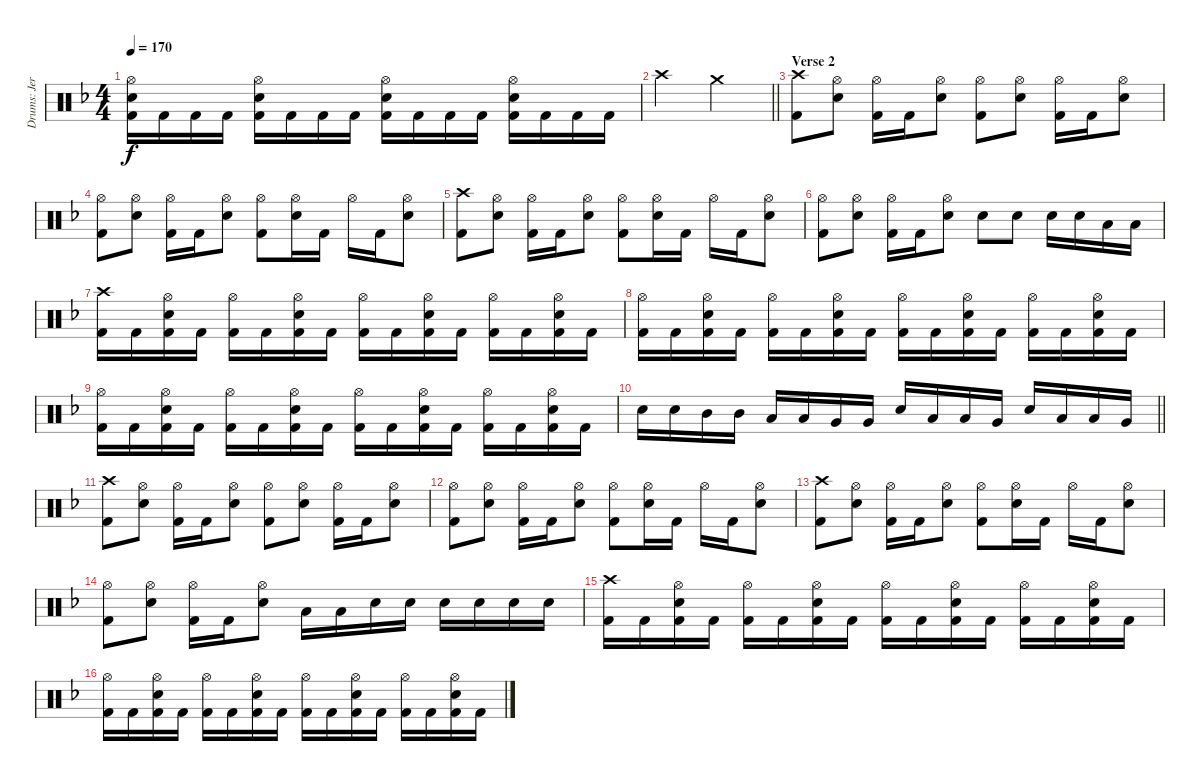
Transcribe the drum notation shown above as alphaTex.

\track ("Drums: Jere Luokkamäki" "Drums: Jer") {instrument percussion}
\staff {score}
\articulation defaults
\ts (4 4)
\tempo 170
\clef neutral
\ks dminor
("Hi-Hat (open)" "Electric Snare (hit)" "Kick (hit) 2").16{dy f} "Kick (hit) 2".16 "Kick (hit) 2".16 "Kick (hit) 2".16 ("Hi-Hat (open)" "Electric Snare (hit)" "Kick (hit) 2").16 "Kick (hit) 2".16 "Kick (hit) 2".16 "Kick (hit) 2".16 ("Hi-Hat (open)" "Electric Snare (hit)" "Kick (hit) 2").16 "Kick (hit) 2".16 "Kick (hit) 2".16 "Kick (hit) 2".16 ("Hi-Hat (open)" "Electric Snare (hit)" "Kick (hit) 2").16 "Kick (hit) 2".16 "Kick (hit) 2".16 "Kick (hit) 2".16 |
\barLineRight lightlight "Crash high (hit)".2 "Crash medium (hit)".2
|
\section ("" "Verse 2")
("Crash high (hit)" "Kick (hit) 2").8 ("Hi-Hat (open)" "Electric Snare (hit)").8 ("Hi-Hat (open)" "Kick (hit) 2").16 "Kick (hit) 2".16 ("Hi-Hat (open)" "Electric Snare (hit)").8 ("Hi-Hat (open)" "Kick (hit) 2").8 ("Hi-Hat (open)" "Electric Snare (hit)").8 ("Hi-Hat (open)" "Kick (hit) 2").16 "Kick (hit) 2".16 ("Hi-Hat (open)" "Electric Snare (hit)").8 |
("Hi-Hat (open)" "Kick (hit) 2").8 ("Hi-Hat (open)" "Electric Snare (hit)").8 ("Hi-Hat (open)" "Kick (hit) 2").16 "Kick (hit) 2".16 ("Hi-Hat (open)" "Electric Snare (hit)").8 ("Hi-Hat (open)" "Kick (hit) 2").8 ("Hi-Hat (open)" "Electric Snare (hit)").16 "Kick (hit) 2".16 "Hi-Hat (open)".16 "Kick (hit) 2".16 ("Hi-Hat (open)" "Electric Snare (hit)").8 |
("Crash high (hit)" "Kick (hit) 2").8 ("Hi-Hat (open)" "Electric Snare (hit)").8 ("Hi-Hat (open)" "Kick (hit) 2").16 "Kick (hit) 2".16 ("Hi-Hat (open)" "Electric Snare (hit)").8 ("Hi-Hat (open)" "Kick (hit) 2").8 ("Hi-Hat (open)" "Electric Snare (hit)").16 "Kick (hit) 2".16 "Hi-Hat (open)".16 "Kick (hit) 2".16 ("Hi-Hat (open)" "Electric Snare (hit)").8 |
("Hi-Hat (open)" "Kick (hit) 2").8 ("Hi-Hat (open)" "Electric Snare (hit)").8 ("Hi-Hat (open)" "Kick (hit) 2").16 "Kick (hit) 2".16 ("Hi-Hat (open)" "Electric Snare (hit)").8 "Electric Snare (hit)".8 "Electric Snare (hit)".8 "Electric Snare (hit)".16 "Electric Snare (hit)".16 "Low Tom (hit)".16 "Low Tom (hit)".16 |
("Crash high (hit)" "Kick (hit) 2").16 "Kick (hit) 2".16 ("Hi-Hat (open)" "Electric Snare (hit)" "Kick (hit) 2").16 "Kick (hit) 2".16 ("Hi-Hat (open)" "Kick (hit) 2").16 "Kick (hit) 2".16 ("Hi-Hat (open)" "Electric Snare (hit)" "Kick (hit) 2").16 "Kick (hit) 2".16 ("Hi-Hat (open)" "Kick (hit) 2").16 "Kick (hit) 2".16 ("Hi-Hat (open)" "Electric Snare (hit)" "Kick (hit) 2").16 "Kick (hit) 2".16 ("Hi-Hat (open)" "Kick (hit) 2").16 "Kick (hit) 2".16 ("Hi-Hat (open)" "Electric Snare (hit)" "Kick (hit) 2").16 "Kick (hit) 2".16 |
("Hi-Hat (open)" "Kick (hit) 2").16 "Kick (hit) 2".16 ("Hi-Hat (open)" "Electric Snare (hit)" "Kick (hit) 2").16 "Kick (hit) 2".16 ("Hi-Hat (open)" "Kick (hit) 2").16 "Kick (hit) 2".16 ("Hi-Hat (open)" "Electric Snare (hit)" "Kick (hit) 2").16 "Kick (hit) 2".16 ("Hi-Hat (open)" "Kick (hit) 2").16 "Kick (hit) 2".16 ("Hi-Hat (open)" "Electric Snare (hit)" "Kick (hit) 2").16 "Kick (hit) 2".16 ("Hi-Hat (open)" "Kick (hit) 2").16 "Kick (hit) 2".16 ("Hi-Hat (open)" "Electric Snare (hit)" "Kick (hit) 2").16 "Kick (hit) 2".16 |
("Hi-Hat (open)" "Kick (hit) 2").16 "Kick (hit) 2".16 ("Hi-Hat (open)" "Electric Snare (hit)" "Kick (hit) 2").16 "Kick (hit) 2".16 ("Hi-Hat (open)" "Kick (hit) 2").16 "Kick (hit) 2".16 ("Hi-Hat (open)" "Electric Snare (hit)" "Kick (hit) 2").16 "Kick (hit) 2".16 ("Hi-Hat (open)" "Kick (hit) 2").16 "Kick (hit) 2".16 ("Hi-Hat (open)" "Electric Snare (hit)" "Kick (hit) 2").16 "Kick (hit) 2".16 ("Hi-Hat (open)" "Kick (hit) 2").16 "Kick (hit) 2".16 ("Hi-Hat (open)" "Electric Snare (hit)" "Kick (hit) 2").16 "Kick (hit) 2".16 |
\barLineRight lightlight "Electric Snare (hit)".16 "Electric Snare (hit)".16 "Mid Tom (hit)".16 "Mid Tom (hit)".16 "Low Tom (hit)".16 "Low Tom (hit)".16 "Very Low Tom (hit)".16 "Very Low Tom (hit)".16 "Electric Snare (hit)".16 "Low Tom (hit)".16 "Low Tom (hit)".16 "Very Low Tom (hit)".16 "Electric Snare (hit)".16 "Low Tom (hit)".16 "Low Tom (hit)".16 "Very Low Tom (hit)".16
|
("Crash high (hit)" "Kick (hit) 2").8 ("Hi-Hat (open)" "Electric Snare (hit)").8 ("Hi-Hat (open)" "Kick (hit) 2").16 "Kick (hit) 2".16 ("Hi-Hat (open)" "Electric Snare (hit)").8 ("Hi-Hat (open)" "Kick (hit) 2").8 ("Hi-Hat (open)" "Electric Snare (hit)").8 ("Hi-Hat (open)" "Kick (hit) 2").16 "Kick (hit) 2".16 ("Hi-Hat (open)" "Electric Snare (hit)").8 |
("Hi-Hat (open)" "Kick (hit) 2").8 ("Hi-Hat (open)" "Electric Snare (hit)").8 ("Hi-Hat (open)" "Kick (hit) 2").16 "Kick (hit) 2".16 ("Hi-Hat (open)" "Electric Snare (hit)").8 ("Hi-Hat (open)" "Kick (hit) 2").8 ("Hi-Hat (open)" "Electric Snare (hit)").16 "Kick (hit) 2".16 "Hi-Hat (open)".16 "Kick (hit) 2".16 ("Hi-Hat (open)" "Electric Snare (hit)").8 |
("Crash high (hit)" "Kick (hit) 2").8 ("Hi-Hat (open)" "Electric Snare (hit)").8 ("Hi-Hat (open)" "Kick (hit) 2").16 "Kick (hit) 2".16 ("Hi-Hat (open)" "Electric Snare (hit)").8 ("Hi-Hat (open)" "Kick (hit) 2").8 ("Hi-Hat (open)" "Electric Snare (hit)").16 "Kick (hit) 2".16 "Hi-Hat (open)".16 "Kick (hit) 2".16 ("Hi-Hat (open)" "Electric Snare (hit)").8 |
("Hi-Hat (open)" "Kick (hit) 2").8 ("Hi-Hat (open)" "Electric Snare (hit)").8 ("Hi-Hat (open)" "Kick (hit) 2").16 "Kick (hit) 2".16 ("Hi-Hat (open)" "Electric Snare (hit)").8 "Low Tom (hit)".16 "Low Tom (hit)".16 "Electric Snare (hit)".16 "Electric Snare (hit)".16 "Electric Snare (hit)".16 "Electric Snare (hit)".16 "Electric Snare (hit)".16 "Electric Snare (hit)".16 |
("Crash high (hit)" "Kick (hit) 2").16 "Kick (hit) 2".16 ("Hi-Hat (open)" "Electric Snare (hit)" "Kick (hit) 2").16 "Kick (hit) 2".16 ("Hi-Hat (open)" "Kick (hit) 2").16 "Kick (hit) 2".16 ("Hi-Hat (open)" "Electric Snare (hit)" "Kick (hit) 2").16 "Kick (hit) 2".16 ("Hi-Hat (open)" "Kick (hit) 2").16 "Kick (hit) 2".16 ("Hi-Hat (open)" "Electric Snare (hit)" "Kick (hit) 2").16 "Kick (hit) 2".16 ("Hi-Hat (open)" "Kick (hit) 2").16 "Kick (hit) 2".16 ("Hi-Hat (open)" "Electric Snare (hit)" "Kick (hit) 2").16 "Kick (hit) 2".16 |
("Hi-Hat (open)" "Kick (hit) 2").16 "Kick (hit) 2".16 ("Hi-Hat (open)" "Electric Snare (hit)" "Kick (hit) 2").16 "Kick (hit) 2".16 ("Hi-Hat (open)" "Kick (hit) 2").16 "Kick (hit) 2".16 ("Hi-Hat (open)" "Electric Snare (hit)" "Kick (hit) 2").16 "Kick (hit) 2".16 ("Hi-Hat (open)" "Kick (hit) 2").16 "Kick (hit) 2".16 ("Hi-Hat (open)" "Electric Snare (hit)" "Kick (hit) 2").16 "Kick (hit) 2".16 ("Hi-Hat (open)" "Kick (hit) 2").16 "Kick (hit) 2".16 ("Hi-Hat (open)" "Electric Snare (hit)" "Kick (hit) 2").16 "Kick (hit) 2".16
